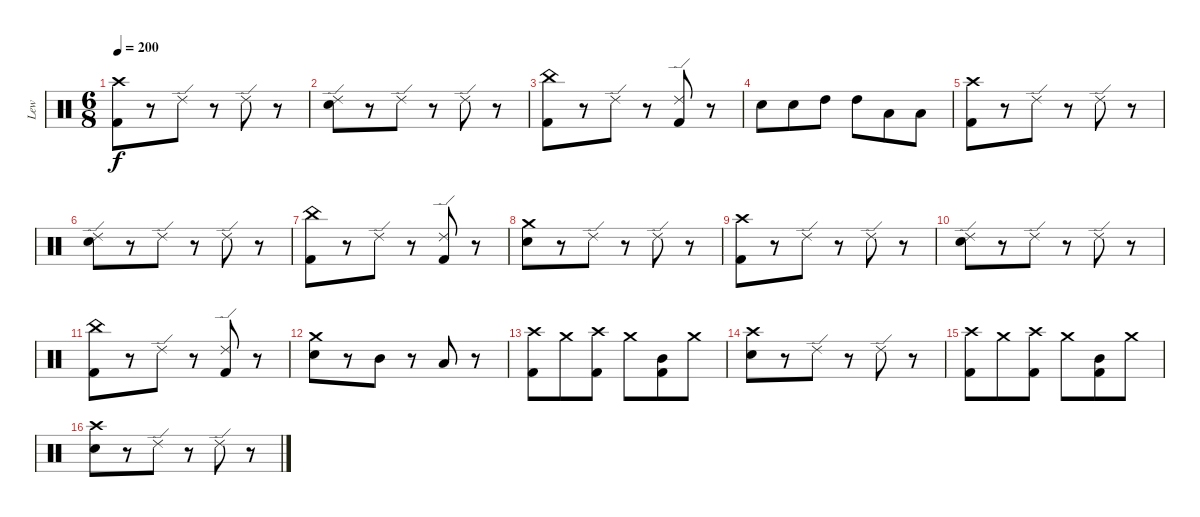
\track ("Lew" "Lew") {instrument percussion}
\staff {score}
\articulation defaults
\ts (6 8)
\tempo 200
\clef neutral
\ks c
("Crash high (hit)" "Kick (hit) 2").8{dy f} r.8 "Ride (edge) 2".8 r.8 "Ride (edge) 2".8 r.8 |
("Ride (edge) 2" "Electric Snare (hit)").8 r.8 "Ride (edge) 2".8 r.8 "Ride (edge) 2".8 r.8 |
("China (hit)" "Kick (hit) 2").8 r.8 "Ride (edge) 2".8 r.8 ("Ride (edge) 2" "Kick (hit) 2").8 r.8 |
"Electric Snare (hit)".8 "Electric Snare (hit)".8 "High Tom (hit)".8 "High Tom (hit)".8 "Low Tom (hit)".8 "Low Tom (hit)".8 |
("Crash high (hit)" "Kick (hit) 2").8 r.8 "Ride (edge) 2".8 r.8 "Ride (edge) 2".8 r.8 |
("Ride (edge) 2" "Electric Snare (hit)").8 r.8 "Ride (edge) 2".8 r.8 "Ride (edge) 2".8 r.8 |
("China (hit)" "Kick (hit) 2").8 r.8 "Ride (edge) 2".8 r.8 ("Ride (edge) 2" "Kick (hit) 2").8 r.8 |
("Crash medium (hit)" "Electric Snare (hit)").8 r.8 "Ride (edge) 2".8 r.8 "Ride (edge) 2".8 r.8 |
("Crash high (hit)" "Kick (hit) 2").8 r.8 "Ride (edge) 2".8 r.8 "Ride (edge) 2".8 r.8 |
("Ride (edge) 2" "Electric Snare (hit)").8 r.8 "Ride (edge) 2".8 r.8 "Ride (edge) 2".8 r.8 |
("China (hit)" "Kick (hit) 2").8 r.8 "Ride (edge) 2".8 r.8 ("Ride (edge) 2" "Kick (hit) 2").8 r.8 |
("Crash medium (hit)" "Electric Snare (hit)").8 r.8 "Mid Tom (hit)".8 r.8 "Low Tom (hit)".8 r.8 |
("Crash high (hit)" "Kick (hit) 2").8 "Crash medium (hit)".8 ("Crash high (hit)" "Kick (hit) 2").8 "Crash medium (hit)".8 ("Mid Tom (hit)" "Kick (hit) 2").8 "Crash medium (hit)".8 |
("Crash high (hit)" "Electric Snare (hit)").8 r.8 "Ride (edge) 2".8 r.8 "Ride (edge) 2".8 r.8 |
("Crash high (hit)" "Kick (hit) 2").8 "Crash medium (hit)".8 ("Crash high (hit)" "Kick (hit) 2").8 "Crash medium (hit)".8 ("Mid Tom (hit)" "Kick (hit) 2").8 "Crash medium (hit)".8 |
("Crash high (hit)" "Electric Snare (hit)").8 r.8 "Ride (edge) 2".8 r.8 "Ride (edge) 2".8 r.8
